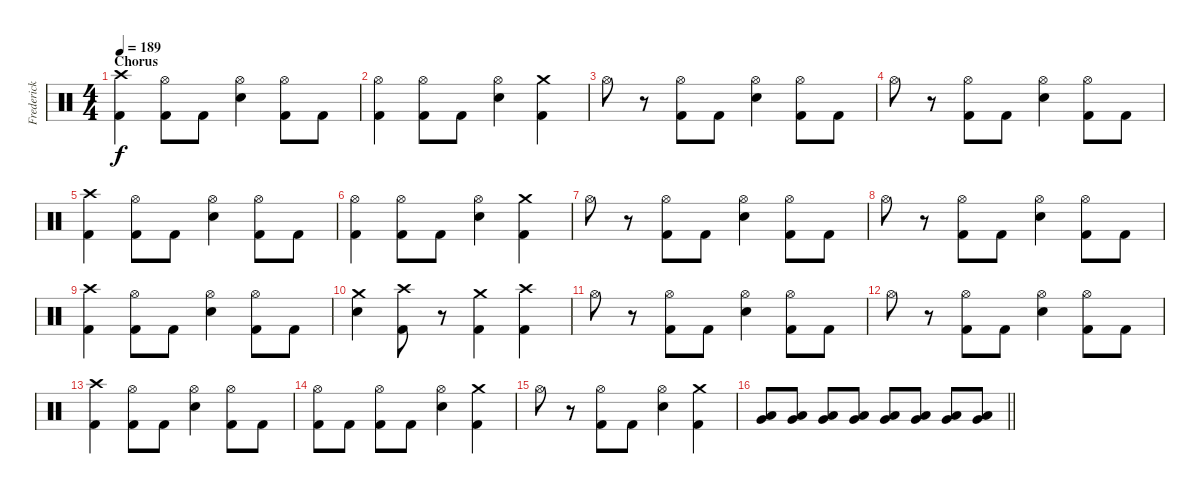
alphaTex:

\track ("Frederick Ehmke" "Frederick ") {instrument percussion}
\staff {score}
\articulation defaults
\ts (4 4)
\section ("" "Chorus")
\tempo 189
\clef neutral
\ks c
("Kick (hit) 2" "Crash high (hit)").4{dy f} ("Kick (hit) 2" "Hi-Hat (open)").8 "Kick (hit) 2".8 ("Electric Snare (hit)" "Hi-Hat (open)").4 ("Kick (hit) 2" "Hi-Hat (open)").8 "Kick (hit) 2".8 |
("Kick (hit) 2" "Hi-Hat (open)").4 ("Kick (hit) 2" "Hi-Hat (open)").8 "Kick (hit) 2".8 ("Electric Snare (hit)" "Hi-Hat (open)").4 ("Kick (hit) 2" "Crash medium (hit)").4 |
"Hi-Hat (open)".8 r.8 ("Kick (hit) 2" "Hi-Hat (open)").8 "Kick (hit) 2".8 ("Electric Snare (hit)" "Hi-Hat (open)").4 ("Kick (hit) 2" "Hi-Hat (open)").8 "Kick (hit) 2".8 |
"Hi-Hat (open)".8 r.8 ("Kick (hit) 2" "Hi-Hat (open)").8 "Kick (hit) 2".8 ("Electric Snare (hit)" "Hi-Hat (open)").4 ("Kick (hit) 2" "Hi-Hat (open)").8 "Kick (hit) 2".8 |
("Kick (hit) 2" "Crash high (hit)").4 ("Kick (hit) 2" "Hi-Hat (open)").8 "Kick (hit) 2".8 ("Electric Snare (hit)" "Hi-Hat (open)").4 ("Kick (hit) 2" "Hi-Hat (open)").8 "Kick (hit) 2".8 |
("Kick (hit) 2" "Hi-Hat (open)").4 ("Kick (hit) 2" "Hi-Hat (open)").8 "Kick (hit) 2".8 ("Electric Snare (hit)" "Hi-Hat (open)").4 ("Kick (hit) 2" "Crash medium (hit)").4 |
"Hi-Hat (open)".8 r.8 ("Kick (hit) 2" "Hi-Hat (open)").8 "Kick (hit) 2".8 ("Electric Snare (hit)" "Hi-Hat (open)").4 ("Kick (hit) 2" "Hi-Hat (open)").8 "Kick (hit) 2".8 |
"Hi-Hat (open)".8 r.8 ("Kick (hit) 2" "Hi-Hat (open)").8 "Kick (hit) 2".8 ("Electric Snare (hit)" "Hi-Hat (open)").4 ("Kick (hit) 2" "Hi-Hat (open)").8 "Kick (hit) 2".8 |
("Kick (hit) 2" "Crash high (hit)").4 ("Kick (hit) 2" "Hi-Hat (open)").8 "Kick (hit) 2".8 ("Electric Snare (hit)" "Hi-Hat (open)").4 ("Kick (hit) 2" "Hi-Hat (open)").8 "Kick (hit) 2".8 |
("Electric Snare (hit)" "Crash medium (hit)").4 ("Kick (hit) 2" "Crash high (hit)").8 r.8 ("Kick (hit) 2" "Crash medium (hit)").4 ("Kick (hit) 2" "Crash high (hit)").4 |
"Hi-Hat (open)".8 r.8 ("Kick (hit) 2" "Hi-Hat (open)").8 "Kick (hit) 2".8 ("Electric Snare (hit)" "Hi-Hat (open)").4 ("Kick (hit) 2" "Hi-Hat (open)").8 "Kick (hit) 2".8 |
"Hi-Hat (open)".8 r.8 ("Kick (hit) 2" "Hi-Hat (open)").8 "Kick (hit) 2".8 ("Electric Snare (hit)" "Hi-Hat (open)").4 ("Kick (hit) 2" "Hi-Hat (open)").8 "Kick (hit) 2".8 |
("Kick (hit) 2" "Crash high (hit)").4 ("Kick (hit) 2" "Hi-Hat (open)").8 "Kick (hit) 2".8 ("Electric Snare (hit)" "Hi-Hat (open)").4 ("Kick (hit) 2" "Hi-Hat (open)").8 "Kick (hit) 2".8 |
("Kick (hit) 2" "Hi-Hat (open)").8 "Kick (hit) 2".8 ("Kick (hit) 2" "Hi-Hat (open)").8 "Kick (hit) 2".8 ("Electric Snare (hit)" "Hi-Hat (open)").4 ("Kick (hit) 2" "Crash medium (hit)").4 |
"Hi-Hat (open)".8 r.8 ("Kick (hit) 2" "Hi-Hat (open)").8 "Kick (hit) 2".8 ("Electric Snare (hit)" "Hi-Hat (open)").4 ("Kick (hit) 2" "Crash medium (hit)").4 |
\barLineRight lightlight
("Low Tom (hit)" "Very Low Tom (hit)").8{volume 6} ("Low Tom (hit)" "Very Low Tom (hit)").8{volume 8} ("Low Tom (hit)" "Very Low Tom (hit)").8{volume 9} ("Low Tom (hit)" "Very Low Tom (hit)").8{volume 10} ("Low Tom (hit)" "Very Low Tom (hit)").8{volume 11} ("Low Tom (hit)" "Very Low Tom (hit)").8{volume 12} ("Low Tom (hit)" "Very Low Tom (hit)").8{volume 13} ("Low Tom (hit)" "Very Low Tom (hit)").8
